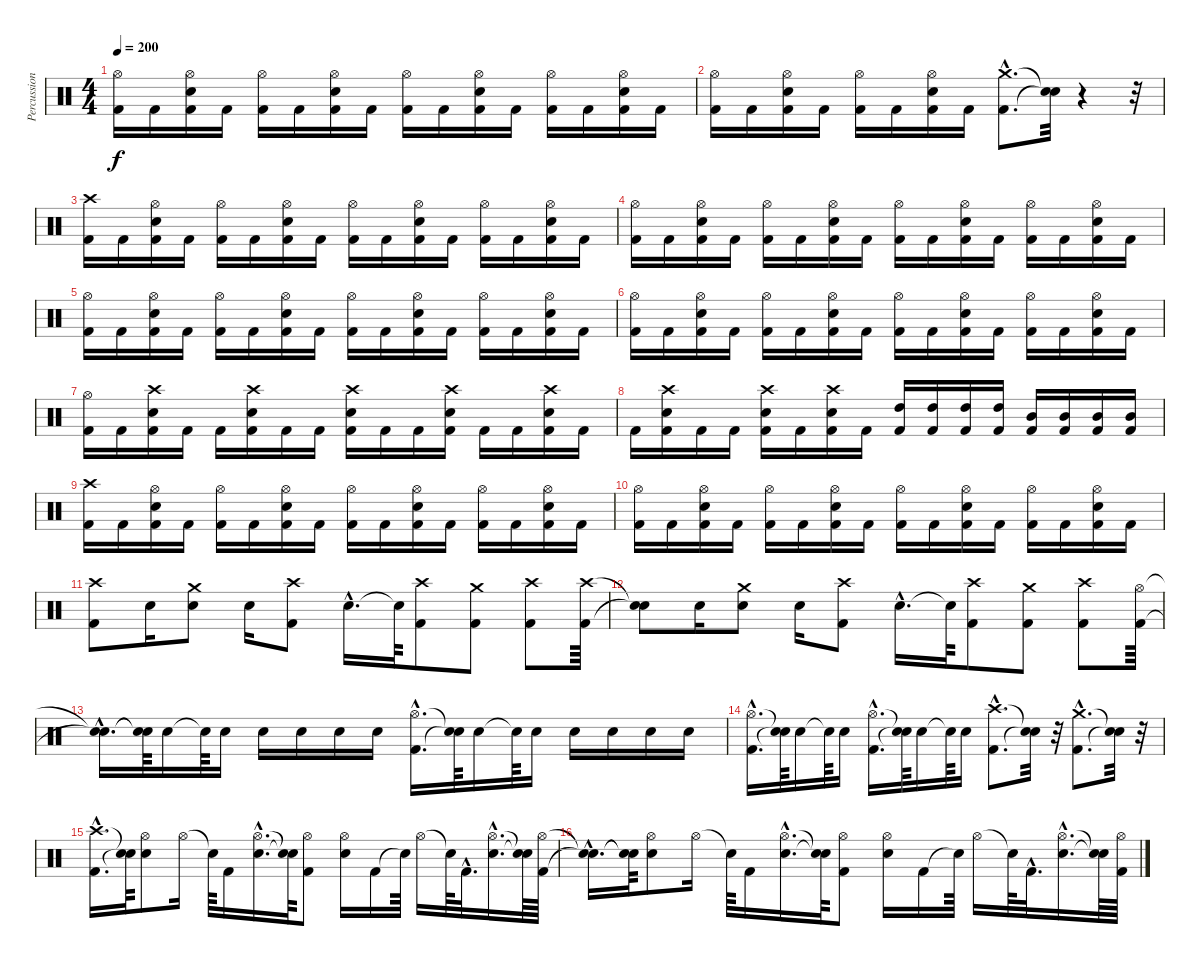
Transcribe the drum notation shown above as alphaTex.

\track ("Percussion" "Percussion") {instrument percussion}
\staff {score}
\articulation defaults
\ts (4 4)
\tempo 200
\clef neutral
\ks c
("Kick (hit) 2" "Hi-Hat (open)").16{dy f} "Kick (hit) 2".16 ("Kick (hit) 2" "Electric Snare (hit)" "Hi-Hat (open)").16 "Kick (hit) 2".16 ("Kick (hit) 2" "Hi-Hat (open)").16 "Kick (hit) 2".16 ("Kick (hit) 2" "Electric Snare (hit)" "Hi-Hat (open)").16 "Kick (hit) 2".16 ("Kick (hit) 2" "Hi-Hat (open)").16 "Kick (hit) 2".16 ("Kick (hit) 2" "Electric Snare (hit)" "Hi-Hat (open)").16 "Kick (hit) 2".16 ("Kick (hit) 2" "Hi-Hat (open)").16 "Kick (hit) 2".16 ("Kick (hit) 2" "Electric Snare (hit)" "Hi-Hat (open)").16 "Kick (hit) 2".16 |
("Kick (hit) 2" "Hi-Hat (open)").16 "Kick (hit) 2".16 ("Kick (hit) 2" "Electric Snare (hit)" "Hi-Hat (open)").16 "Kick (hit) 2".16 ("Kick (hit) 2" "Hi-Hat (open)").16 "Kick (hit) 2".16 ("Kick (hit) 2" "Electric Snare (hit)" "Hi-Hat (open)").16 "Kick (hit) 2".16 ("Kick (hit) 2"{hac} "Crash medium (hit)"{hac}).8{d} ("Snare (hit)"{t} "Snare (hit)"{t}).32 r.4 r.32 |
("Kick (hit) 2" "Crash high (hit)").16 "Kick (hit) 2".16 ("Kick (hit) 2" "Electric Snare (hit)" "Hi-Hat (open)").16 "Kick (hit) 2".16 ("Kick (hit) 2" "Hi-Hat (open)").16 "Kick (hit) 2".16 ("Kick (hit) 2" "Electric Snare (hit)" "Hi-Hat (open)").16 "Kick (hit) 2".16 ("Kick (hit) 2" "Hi-Hat (open)").16 "Kick (hit) 2".16 ("Kick (hit) 2" "Electric Snare (hit)" "Hi-Hat (open)").16 "Kick (hit) 2".16 ("Kick (hit) 2" "Hi-Hat (open)").16 "Kick (hit) 2".16 ("Kick (hit) 2" "Electric Snare (hit)" "Hi-Hat (open)").16 "Kick (hit) 2".16 |
("Kick (hit) 2" "Hi-Hat (open)").16 "Kick (hit) 2".16 ("Kick (hit) 2" "Electric Snare (hit)" "Hi-Hat (open)").16 "Kick (hit) 2".16 ("Kick (hit) 2" "Hi-Hat (open)").16 "Kick (hit) 2".16 ("Kick (hit) 2" "Electric Snare (hit)" "Hi-Hat (open)").16 "Kick (hit) 2".16 ("Kick (hit) 2" "Hi-Hat (open)").16 "Kick (hit) 2".16 ("Kick (hit) 2" "Electric Snare (hit)" "Hi-Hat (open)").16 "Kick (hit) 2".16 ("Kick (hit) 2" "Hi-Hat (open)").16 "Kick (hit) 2".16 ("Kick (hit) 2" "Electric Snare (hit)" "Hi-Hat (open)").16 "Kick (hit) 2".16 |
("Kick (hit) 2" "Hi-Hat (open)").16 "Kick (hit) 2".16 ("Kick (hit) 2" "Electric Snare (hit)" "Hi-Hat (open)").16 "Kick (hit) 2".16 ("Kick (hit) 2" "Hi-Hat (open)").16 "Kick (hit) 2".16 ("Kick (hit) 2" "Electric Snare (hit)" "Hi-Hat (open)").16 "Kick (hit) 2".16 ("Kick (hit) 2" "Hi-Hat (open)").16 "Kick (hit) 2".16 ("Kick (hit) 2" "Electric Snare (hit)" "Hi-Hat (open)").16 "Kick (hit) 2".16 ("Kick (hit) 2" "Hi-Hat (open)").16 "Kick (hit) 2".16 ("Kick (hit) 2" "Electric Snare (hit)" "Hi-Hat (open)").16 "Kick (hit) 2".16 |
("Kick (hit) 2" "Hi-Hat (open)").16 "Kick (hit) 2".16 ("Kick (hit) 2" "Electric Snare (hit)" "Hi-Hat (open)").16 "Kick (hit) 2".16 ("Kick (hit) 2" "Hi-Hat (open)").16 "Kick (hit) 2".16 ("Kick (hit) 2" "Electric Snare (hit)" "Hi-Hat (open)").16 "Kick (hit) 2".16 ("Kick (hit) 2" "Hi-Hat (open)").16 "Kick (hit) 2".16 ("Kick (hit) 2" "Electric Snare (hit)" "Hi-Hat (open)").16 "Kick (hit) 2".16 ("Kick (hit) 2" "Hi-Hat (open)").16 "Kick (hit) 2".16 ("Kick (hit) 2" "Electric Snare (hit)" "Hi-Hat (open)").16 "Kick (hit) 2".16 |
("Kick (hit) 2" "Hi-Hat (open)").16 "Kick (hit) 2".16 ("Kick (hit) 2" "Electric Snare (hit)" "Crash high (hit)").16 "Kick (hit) 2".16 "Kick (hit) 2".16 ("Kick (hit) 2" "Electric Snare (hit)" "Crash high (hit)").16 "Kick (hit) 2".16 "Kick (hit) 2".16 ("Kick (hit) 2" "Electric Snare (hit)" "Crash high (hit)").16 "Kick (hit) 2".16 "Kick (hit) 2".16 ("Kick (hit) 2" "Electric Snare (hit)" "Crash high (hit)").16 "Kick (hit) 2".16 "Kick (hit) 2".16 ("Kick (hit) 2" "Crash high (hit)" "Electric Snare (hit)").16 "Kick (hit) 2".16 |
"Kick (hit) 2".16 ("Kick (hit) 2" "Electric Snare (hit)" "Crash high (hit)").16 "Kick (hit) 2".16 "Kick (hit) 2".16 ("Kick (hit) 2" "Crash high (hit)" "Electric Snare (hit)").16 "Kick (hit) 2".16 ("Kick (hit) 2" "Crash high (hit)" "Electric Snare (hit)").16 "Kick (hit) 2".16 ("Kick (hit) 2" "High Tom (hit)").16 ("Kick (hit) 2" "High Tom (hit)").16 ("Kick (hit) 2" "High Tom (hit)").16 ("Kick (hit) 2" "High Tom (hit)").16 ("Kick (hit) 2" "Mid Tom (hit)").16 ("Kick (hit) 2" "Mid Tom (hit)").16 ("Kick (hit) 2" "Mid Tom (hit)").16 ("Kick (hit) 2" "Mid Tom (hit)").16 |
("Kick (hit) 2" "Crash high (hit)").16 "Kick (hit) 2".16 ("Kick (hit) 2" "Electric Snare (hit)" "Hi-Hat (open)").16 "Kick (hit) 2".16 ("Kick (hit) 2" "Hi-Hat (open)").16 "Kick (hit) 2".16 ("Kick (hit) 2" "Electric Snare (hit)" "Hi-Hat (open)").16 "Kick (hit) 2".16 ("Kick (hit) 2" "Hi-Hat (open)").16 "Kick (hit) 2".16 ("Kick (hit) 2" "Electric Snare (hit)" "Hi-Hat (open)").16 "Kick (hit) 2".16 ("Kick (hit) 2" "Hi-Hat (open)").16 "Kick (hit) 2".16 ("Kick (hit) 2" "Electric Snare (hit)" "Hi-Hat (open)").16 "Kick (hit) 2".16 |
("Kick (hit) 2" "Hi-Hat (open)").16 "Kick (hit) 2".16 ("Kick (hit) 2" "Electric Snare (hit)" "Hi-Hat (open)").16 "Kick (hit) 2".16 ("Kick (hit) 2" "Hi-Hat (open)").16 "Kick (hit) 2".16 ("Kick (hit) 2" "Electric Snare (hit)" "Hi-Hat (open)").16 "Kick (hit) 2".16 ("Kick (hit) 2" "Hi-Hat (open)").16 "Kick (hit) 2".16 ("Kick (hit) 2" "Electric Snare (hit)" "Hi-Hat (open)").16 "Kick (hit) 2".16 ("Kick (hit) 2" "Hi-Hat (open)").16 "Kick (hit) 2".16 ("Kick (hit) 2" "Electric Snare (hit)" "Hi-Hat (open)").16 "Kick (hit) 2".16 |
("Crash high (hit)" "Kick (hit) 2").8 "Electric Snare (hit)".16 ("Crash medium (hit)" "Snare (hit)").8 "Electric Snare (hit)".16 ("Crash high (hit)" "Kick (hit) 2").8 "Electric Snare (hit)"{hac}.16{d} "Snare (hit)"{t}.64 ("Crash high (hit)" "Kick (hit) 2").8 ("Crash medium (hit)" "Kick (hit) 2").8 ("Crash high (hit)" "Kick (hit) 2").8 ("Crash high (hit)" "Kick (hit) 2").64 |
("Snare (hit)"{t} "Snare (hit)"{t}).8 "Electric Snare (hit)".16 ("Crash medium (hit)" "Snare (hit)").8 "Electric Snare (hit)".16 ("Crash high (hit)" "Kick (hit) 2").8 "Electric Snare (hit)"{hac}.16{d} "Snare (hit)"{t}.64 ("Crash high (hit)" "Kick (hit) 2").8 ("Crash medium (hit)" "Kick (hit) 2").8 ("Crash high (hit)" "Kick (hit) 2").8 ("Kick (hit) 2" "Hi-Hat (open)").64 |
("Snare (hit)"{hac t} "Snare (hit)"{hac t}).16{d} ("Snare (hit)"{t} "Snare (hit)"{t}).64 "Electric Snare (hit)".16 "Snare (hit)"{t}.64 "Electric Snare (hit)".16 "Electric Snare (hit)".16 "Electric Snare (hit)".16 "Electric Snare (hit)".16 "Electric Snare (hit)".16 ("Kick (hit) 2"{hac} "Hi-Hat (open)"{hac}).16{d} ("Snare (hit)"{t} "Snare (hit)"{t}).64 "Electric Snare (hit)".16 "Snare (hit)"{t}.64 "Electric Snare (hit)".16 "Electric Snare (hit)".16 "Electric Snare (hit)".16 "Electric Snare (hit)".16 "Electric Snare (hit)".16 |
("Kick (hit) 2"{hac} "Hi-Hat (open)"{hac}).16{d} ("Snare (hit)"{t} "Snare (hit)"{t}).64 "Electric Snare (hit)".16 "Snare (hit)"{t}.64 "Electric Snare (hit)".16 ("Kick (hit) 2"{hac} "Hi-Hat (open)"{hac}).16{d} ("Snare (hit)"{t} "Snare (hit)"{t}).64 "Electric Snare (hit)".16 "Snare (hit)"{t}.64 "Electric Snare (hit)".16 ("Kick (hit) 2"{hac} "Crash high (hit)"{hac}).8{d} ("Snare (hit)"{t} "Snare (hit)"{t}).32 r.32 ("Kick (hit) 2"{hac} "Crash medium (hit)"{hac}).8{d} ("Snare (hit)"{t} "Snare (hit)"{t}).32 r.32 |
("Crash high (hit)"{hac} "Kick (hit) 2"{hac}).16{d} ("Snare (hit)"{t} "Snare (hit)"{t}).64 ("Electric Snare (hit)" "Hi-Hat (open)").8 "Hi-Hat (open)".16 "Snare (hit)"{t}.64 "Kick (hit) 2".16 ("Electric Snare (hit)"{hac} "Hi-Hat (open)"{hac}).16{d} ("Snare (hit)"{t} "Snare (hit)"{t}).64 ("Hi-Hat (open)" "Kick (hit) 2").8 ("Electric Snare (hit)" "Hi-Hat (open)").16 "Kick (hit) 2".16 "Snare (hit)"{t}.64 "Hi-Hat (open)".16 "Snare (hit)"{t}.64 "Kick (hit) 2"{hac}.32{d} ("Electric Snare (hit)"{hac} "Hi-Hat (open)"{hac}).16{d} ("Snare (hit)"{t} "Snare (hit)"{t}).64 ("Hi-Hat (open)" "Kick (hit) 2").64 |
("Snare (hit)"{hac t} "Snare (hit)"{hac t}).16{d} ("Snare (hit)"{t} "Snare (hit)"{t}).64 ("Electric Snare (hit)" "Hi-Hat (open)").8 "Hi-Hat (open)".16 "Snare (hit)"{t}.64 "Kick (hit) 2".16 ("Electric Snare (hit)"{hac} "Hi-Hat (open)"{hac}).16{d} ("Snare (hit)"{t} "Snare (hit)"{t}).64 ("Hi-Hat (open)" "Kick (hit) 2").8 ("Electric Snare (hit)" "Hi-Hat (open)").16 "Kick (hit) 2".16 "Snare (hit)"{t}.64 "Hi-Hat (open)".16 "Snare (hit)"{t}.64 "Kick (hit) 2"{hac}.32{d} ("Electric Snare (hit)"{hac} "Hi-Hat (open)"{hac}).16{d} ("Snare (hit)"{t} "Snare (hit)"{t}).64 ("Hi-Hat (open)" "Kick (hit) 2").64
